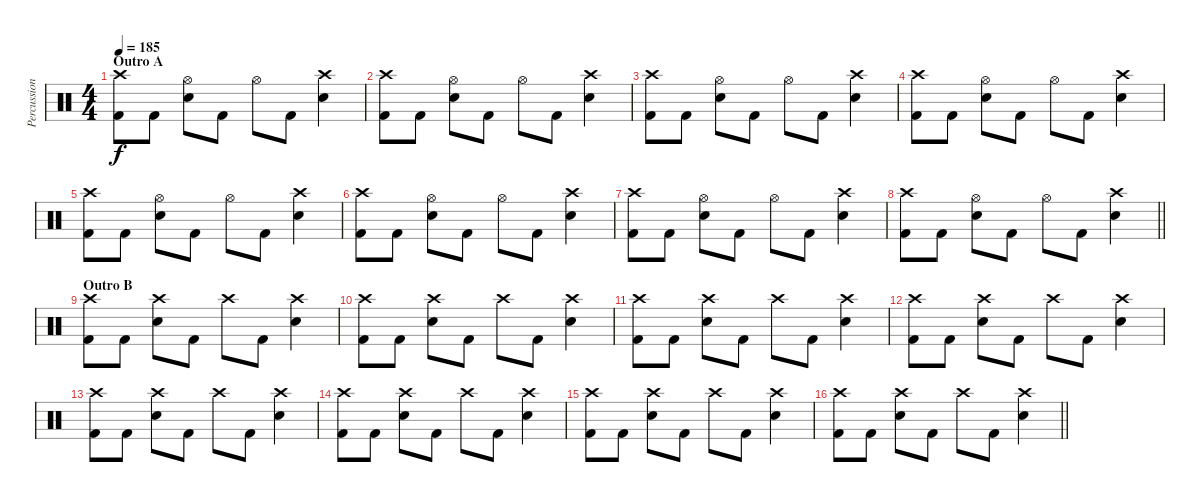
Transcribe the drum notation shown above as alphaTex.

\track ("Percussion" "Percussion") {instrument percussion}
\staff {score}
\articulation defaults
\ts (4 4)
\section ("" "Outro A")
\tempo 185
\clef neutral
\ks c
("Crash high (hit)" "Kick (hit) 2").8{dy f} "Kick (hit) 2".8 ("Hi-Hat (open)" "Snare (hit) 2").8 "Kick (hit) 2".8 "Hi-Hat (open)".8 "Kick (hit) 2".8 ("Crash high (hit)" "Snare (hit) 2").4 |
("Crash high (hit)" "Kick (hit) 2").8 "Kick (hit) 2".8 ("Hi-Hat (open)" "Snare (hit) 2").8 "Kick (hit) 2".8 "Hi-Hat (open)".8 "Kick (hit) 2".8 ("Crash high (hit)" "Snare (hit) 2").4 |
("Crash high (hit)" "Kick (hit) 2").8 "Kick (hit) 2".8 ("Hi-Hat (open)" "Snare (hit) 2").8 "Kick (hit) 2".8 "Hi-Hat (open)".8 "Kick (hit) 2".8 ("Crash high (hit)" "Snare (hit) 2").4 |
("Crash high (hit)" "Kick (hit) 2").8 "Kick (hit) 2".8 ("Hi-Hat (open)" "Snare (hit) 2").8 "Kick (hit) 2".8 "Hi-Hat (open)".8 "Kick (hit) 2".8 ("Crash high (hit)" "Snare (hit) 2").4 |
("Crash high (hit)" "Kick (hit) 2").8 "Kick (hit) 2".8 ("Hi-Hat (open)" "Snare (hit) 2").8 "Kick (hit) 2".8 "Hi-Hat (open)".8 "Kick (hit) 2".8 ("Crash high (hit)" "Snare (hit) 2").4 |
("Crash high (hit)" "Kick (hit) 2").8 "Kick (hit) 2".8 ("Hi-Hat (open)" "Snare (hit) 2").8 "Kick (hit) 2".8 "Hi-Hat (open)".8 "Kick (hit) 2".8 ("Crash high (hit)" "Snare (hit) 2").4 |
("Crash high (hit)" "Kick (hit) 2").8 "Kick (hit) 2".8 ("Hi-Hat (open)" "Snare (hit) 2").8 "Kick (hit) 2".8 "Hi-Hat (open)".8 "Kick (hit) 2".8 ("Crash high (hit)" "Snare (hit) 2").4 |
\barLineRight lightlight
("Crash high (hit)" "Kick (hit) 2").8 "Kick (hit) 2".8 ("Hi-Hat (open)" "Snare (hit) 2").8 "Kick (hit) 2".8 "Hi-Hat (open)".8 "Kick (hit) 2".8 ("Crash high (hit)" "Snare (hit) 2").4 |
\section ("" "Outro B")
("Crash high (hit)" "Kick (hit) 2").8 "Kick (hit) 2".8 ("Crash high (hit)" "Snare (hit) 2").8 "Kick (hit) 2".8 "Crash high (hit)".8 "Kick (hit) 2".8 ("Crash high (hit)" "Snare (hit) 2").4 |
("Crash high (hit)" "Kick (hit) 2").8 "Kick (hit) 2".8 ("Crash high (hit)" "Snare (hit) 2").8 "Kick (hit) 2".8 "Crash high (hit)".8 "Kick (hit) 2".8 ("Crash high (hit)" "Snare (hit) 2").4 |
("Crash high (hit)" "Kick (hit) 2").8 "Kick (hit) 2".8 ("Crash high (hit)" "Snare (hit) 2").8 "Kick (hit) 2".8 "Crash high (hit)".8 "Kick (hit) 2".8 ("Crash high (hit)" "Snare (hit) 2").4 |
("Crash high (hit)" "Kick (hit) 2").8 "Kick (hit) 2".8 ("Crash high (hit)" "Snare (hit) 2").8 "Kick (hit) 2".8 "Crash high (hit)".8 "Kick (hit) 2".8 ("Crash high (hit)" "Snare (hit) 2").4 |
("Crash high (hit)" "Kick (hit) 2").8 "Kick (hit) 2".8 ("Crash high (hit)" "Snare (hit) 2").8 "Kick (hit) 2".8 "Crash high (hit)".8 "Kick (hit) 2".8 ("Crash high (hit)" "Snare (hit) 2").4 |
("Crash high (hit)" "Kick (hit) 2").8 "Kick (hit) 2".8 ("Crash high (hit)" "Snare (hit) 2").8 "Kick (hit) 2".8 "Crash high (hit)".8 "Kick (hit) 2".8 ("Crash high (hit)" "Snare (hit) 2").4 |
("Crash high (hit)" "Kick (hit) 2").8 "Kick (hit) 2".8 ("Crash high (hit)" "Snare (hit) 2").8 "Kick (hit) 2".8 "Crash high (hit)".8 "Kick (hit) 2".8 ("Crash high (hit)" "Snare (hit) 2").4 |
\barLineRight lightlight
("Crash high (hit)" "Kick (hit) 2").8 "Kick (hit) 2".8 ("Crash high (hit)" "Snare (hit) 2").8 "Kick (hit) 2".8 "Crash high (hit)".8 "Kick (hit) 2".8 ("Crash high (hit)" "Snare (hit) 2").4
